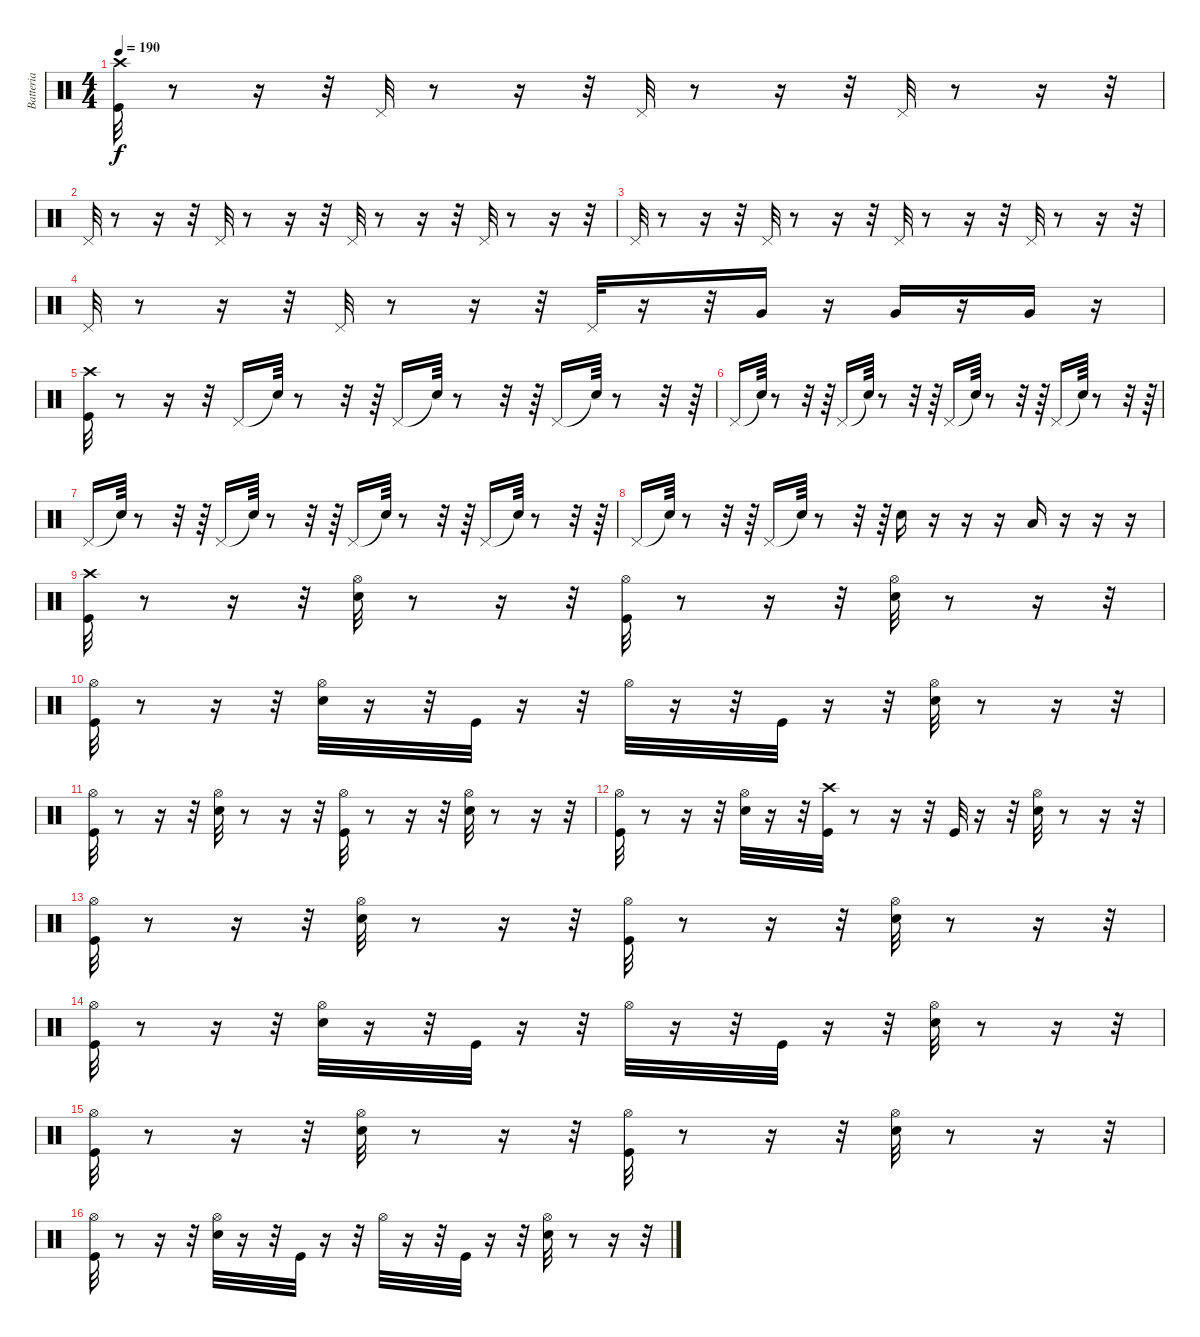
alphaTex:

\track ("Batteria" "Batteria") {instrument percussion}
\staff {score}
\articulation defaults
\ts (4 4)
\tempo 190
\clef neutral
\ks c
("Kick (hit)" "Crash high (hit)").32{dy f} r.8 r.16 r.32 "Pedal Hi-Hat (hit)".32 r.8 r.16 r.32 "Pedal Hi-Hat (hit)".32 r.8 r.16 r.32 "Pedal Hi-Hat (hit)".32 r.8 r.16 r.32 |
"Pedal Hi-Hat (hit)".32 r.8 r.16 r.32 "Pedal Hi-Hat (hit)".32 r.8 r.16 r.32 "Pedal Hi-Hat (hit)".32 r.8 r.16 r.32 "Pedal Hi-Hat (hit)".32 r.8 r.16 r.32 |
"Pedal Hi-Hat (hit)".32 r.8 r.16 r.32 "Pedal Hi-Hat (hit)".32 r.8 r.16 r.32 "Pedal Hi-Hat (hit)".32 r.8 r.16 r.32 "Pedal Hi-Hat (hit)".32 r.8 r.16 r.32 |
"Pedal Hi-Hat (hit)".32 r.8 r.16 r.32 "Pedal Hi-Hat (hit)".32 r.8 r.16 r.32 "Pedal Hi-Hat (hit)".32 r.16 r.32 "Very Low Tom (hit)".16 r.16 "Very Low Tom (hit)".16 r.16 "Very Low Tom (hit)".16 r.16 |
("Kick (hit)" "Crash high (hit)").32 r.8 r.16 r.32 "Pedal Hi-Hat (hit)".16 "Snare (hit)"{t}.64 r.8 r.32 r.64 "Pedal Hi-Hat (hit)".16 "Snare (hit)"{t}.64 r.8 r.32 r.64 "Pedal Hi-Hat (hit)".16 "Snare (hit)"{t}.64 r.8 r.32 r.64 |
"Pedal Hi-Hat (hit)".16 "Snare (hit)"{t}.64 r.8 r.32 r.64 "Pedal Hi-Hat (hit)".16 "Snare (hit)"{t}.64 r.8 r.32 r.64 "Pedal Hi-Hat (hit)".16 "Snare (hit)"{t}.64 r.8 r.32 r.64 "Pedal Hi-Hat (hit)".16 "Snare (hit)"{t}.64 r.8 r.32 r.64 |
"Pedal Hi-Hat (hit)".16 "Snare (hit)"{t}.64 r.8 r.32 r.64 "Pedal Hi-Hat (hit)".16 "Snare (hit)"{t}.64 r.8 r.32 r.64 "Pedal Hi-Hat (hit)".16 "Snare (hit)"{t}.64 r.8 r.32 r.64 "Pedal Hi-Hat (hit)".16 "Snare (hit)"{t}.64 r.8 r.32 r.64 |
"Pedal Hi-Hat (hit)".16 "Snare (hit)"{t}.64 r.8 r.32 r.64 "Pedal Hi-Hat (hit)".16 "Snare (hit)"{t}.64 r.8 r.32 r.64 "Snare (hit) 2".16 r.16 r.16 r.16 "Low Tom (hit)".16 r.16 r.16 r.16 |
("Kick (hit)" "Crash high (hit)").32 r.8 r.16 r.32 ("Snare (hit) 2" "Hi-Hat (open)").32 r.8 r.16 r.32 ("Hi-Hat (open)" "Kick (hit)").32 r.8 r.16 r.32 ("Snare (hit) 2" "Hi-Hat (open)").32 r.8 r.16 r.32 |
("Kick (hit)" "Hi-Hat (open)").32 r.8 r.16 r.32 ("Hi-Hat (open)" "Snare (hit) 2").32 r.16 r.32 "Kick (hit)".32 r.16 r.32 "Hi-Hat (open)".32 r.16 r.32 "Kick (hit)".32 r.16 r.32 ("Snare (hit) 2" "Hi-Hat (open)").32 r.8 r.16 r.32 |
("Hi-Hat (open)" "Kick (hit)").32 r.8 r.16 r.32 ("Snare (hit) 2" "Hi-Hat (open)").32 r.8 r.16 r.32 ("Kick (hit)" "Hi-Hat (open)").32 r.8 r.16 r.32 ("Snare (hit) 2" "Hi-Hat (open)").32 r.8 r.16 r.32 |
("Hi-Hat (open)" "Kick (hit)").32 r.8 r.16 r.32 ("Snare (hit) 2" "Hi-Hat (open)").32 r.16 r.32 ("Kick (hit)" "Crash high (hit)").32 r.8 r.16 r.32 "Kick (hit)".32 r.16 r.32 ("Hi-Hat (open)" "Snare (hit) 2").32 r.8 r.16 r.32 |
("Hi-Hat (open)" "Kick (hit)").32 r.8 r.16 r.32 ("Snare (hit) 2" "Hi-Hat (open)").32 r.8 r.16 r.32 ("Hi-Hat (open)" "Kick (hit)").32 r.8 r.16 r.32 ("Snare (hit) 2" "Hi-Hat (open)").32 r.8 r.16 r.32 |
("Kick (hit)" "Hi-Hat (open)").32 r.8 r.16 r.32 ("Snare (hit) 2" "Hi-Hat (open)").32 r.16 r.32 "Kick (hit)".32 r.16 r.32 "Hi-Hat (open)".32 r.16 r.32 "Kick (hit)".32 r.16 r.32 ("Snare (hit) 2" "Hi-Hat (open)").32 r.8 r.16 r.32 |
("Kick (hit)" "Hi-Hat (open)").32 r.8 r.16 r.32 ("Hi-Hat (open)" "Snare (hit) 2").32 r.8 r.16 r.32 ("Kick (hit)" "Hi-Hat (open)").32 r.8 r.16 r.32 ("Snare (hit) 2" "Hi-Hat (open)").32 r.8 r.16 r.32 |
("Hi-Hat (open)" "Kick (hit)").32 r.8 r.16 r.32 ("Snare (hit) 2" "Hi-Hat (open)").32 r.16 r.32 "Kick (hit)".32 r.16 r.32 "Hi-Hat (open)".32 r.16 r.32 "Kick (hit)".32 r.16 r.32 ("Hi-Hat (open)" "Snare (hit) 2").32 r.8 r.16 r.32
